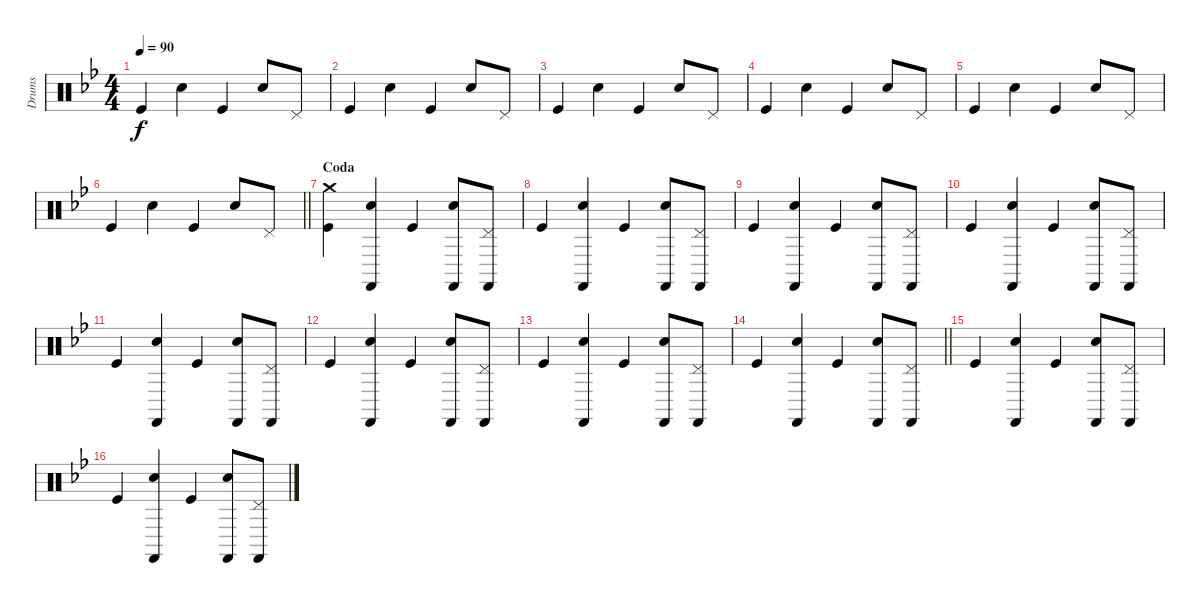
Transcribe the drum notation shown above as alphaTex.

\track ("Drums" "Drums") {instrument percussion}
\staff {score}
\articulation defaults
\ts (4 4)
\tempo 90
\clef neutral
\ks bb "Kick (hit)".4{dy f} "Electric Snare (hit)".4 "Kick (hit)".4 "Electric Snare (hit)".8 "Pedal Hi-Hat (hit)".8
|
"Kick (hit)".4 "Electric Snare (hit)".4 "Kick (hit)".4 "Electric Snare (hit)".8 "Pedal Hi-Hat (hit)".8 |
"Kick (hit)".4 "Electric Snare (hit)".4 "Kick (hit)".4 "Electric Snare (hit)".8 "Pedal Hi-Hat (hit)".8 |
"Kick (hit)".4 "Electric Snare (hit)".4 "Kick (hit)".4 "Electric Snare (hit)".8 "Pedal Hi-Hat (hit)".8 |
"Kick (hit)".4 "Electric Snare (hit)".4 "Kick (hit)".4 "Electric Snare (hit)".8 "Pedal Hi-Hat (hit)".8 |
\barLineRight lightlight "Kick (hit)".4 "Electric Snare (hit)".4 "Kick (hit)".4 "Electric Snare (hit)".8 "Pedal Hi-Hat (hit)".8
|
\section ("" "Coda")
("Kick (hit)" "Crash medium (hit)").4 ("Electric Snare (hit)" "Castanets (hit)").4 "Kick (hit)".4 ("Electric Snare (hit)" "Castanets (hit)").8 ("Castanets (hit)" "Pedal Hi-Hat (hit)").8 |
"Kick (hit)".4 ("Electric Snare (hit)" "Castanets (hit)").4 "Kick (hit)".4 ("Electric Snare (hit)" "Castanets (hit)").8 ("Castanets (hit)" "Pedal Hi-Hat (hit)").8 |
"Kick (hit)".4 ("Electric Snare (hit)" "Castanets (hit)").4 "Kick (hit)".4 ("Electric Snare (hit)" "Castanets (hit)").8 ("Castanets (hit)" "Pedal Hi-Hat (hit)").8 |
"Kick (hit)".4 ("Electric Snare (hit)" "Castanets (hit)").4 "Kick (hit)".4 ("Electric Snare (hit)" "Castanets (hit)").8 ("Castanets (hit)" "Pedal Hi-Hat (hit)").8 |
"Kick (hit)".4 ("Electric Snare (hit)" "Castanets (hit)").4 "Kick (hit)".4 ("Electric Snare (hit)" "Castanets (hit)").8 ("Castanets (hit)" "Pedal Hi-Hat (hit)").8 |
"Kick (hit)".4 ("Electric Snare (hit)" "Castanets (hit)").4 "Kick (hit)".4 ("Electric Snare (hit)" "Castanets (hit)").8 ("Castanets (hit)" "Pedal Hi-Hat (hit)").8 |
"Kick (hit)".4 ("Electric Snare (hit)" "Castanets (hit)").4 "Kick (hit)".4 ("Electric Snare (hit)" "Castanets (hit)").8 ("Castanets (hit)" "Pedal Hi-Hat (hit)").8 |
\barLineRight lightlight "Kick (hit)".4
("Electric Snare (hit)" "Castanets (hit)").4 "Kick (hit)".4 ("Electric Snare (hit)" "Castanets (hit)").8 ("Castanets (hit)" "Pedal Hi-Hat (hit)").8 |
"Kick (hit)".4 ("Electric Snare (hit)" "Castanets (hit)").4 "Kick (hit)".4 ("Electric Snare (hit)" "Castanets (hit)").8 ("Castanets (hit)" "Pedal Hi-Hat (hit)").8 |
"Kick (hit)".4 ("Electric Snare (hit)" "Castanets (hit)").4 "Kick (hit)".4 ("Electric Snare (hit)" "Castanets (hit)").8 ("Castanets (hit)" "Pedal Hi-Hat (hit)").8
